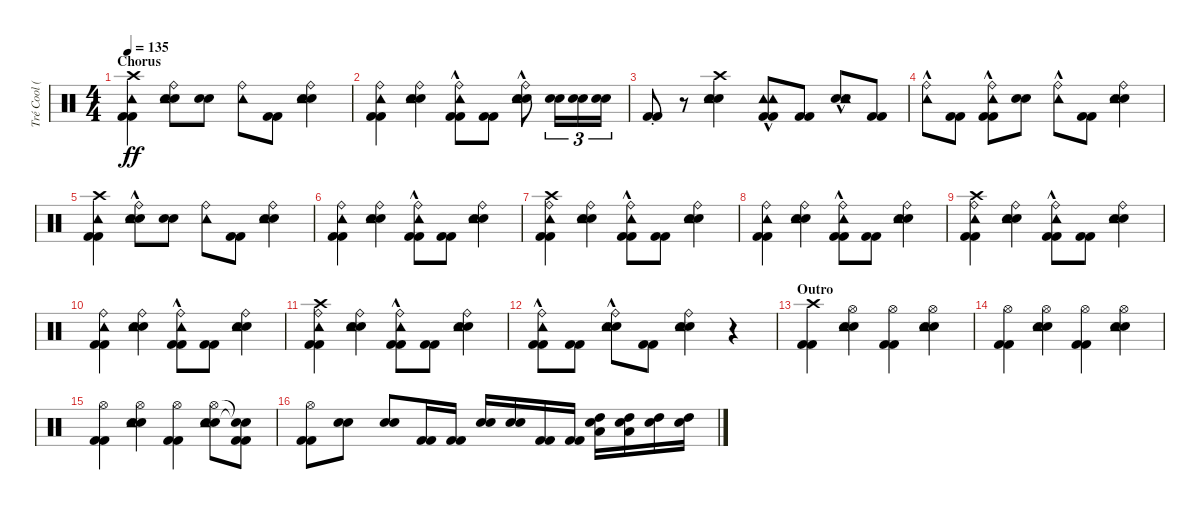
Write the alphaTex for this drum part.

\track ("Tré Cool (Drums)" "Tré Cool (") {instrument percussion}
\staff {score}
\articulation defaults
\ts (4 4)
\section ("" "Chorus")
\tempo 135
\clef neutral
\ks c
("Kick (hit) 2" "Kick (hit) 2" "Tambourine (hit)" "Crash high (hit)").4{dy ff} ("Snare (hit) 2" "Snare (hit) 2" "Ride (bell)" "Tambourine (hit)").8 ("Snare (hit) 2" "Snare (hit) 2").8 ("Ride (bell)" "Tambourine (hit)").8 ("Kick (hit) 2" "Kick (hit) 2").8 ("Snare (hit) 2" "Snare (hit) 2" "Ride (bell)" "Tambourine (hit)").4 |
("Kick (hit) 2" "Kick (hit) 2" "Ride (bell)" "Tambourine (hit)").4 ("Snare (hit) 2" "Snare (hit) 2" "Ride (bell)" "Tambourine (hit)").4 ("Kick (hit) 2" "Kick (hit) 2" "Ride (bell)"{hac} "Tambourine (hit)"{hac}).8 ("Kick (hit) 2" "Kick (hit) 2").8 ("Snare (hit) 2"{hac} "Snare (hit) 2"{hac} "Ride (bell)" "Tambourine (hit)").8 ("Snare (hit) 2" "Snare (hit) 2").16{tu (3 2)} ("Snare (hit) 2" "Snare (hit) 2").16{tu (3 2)} ("Snare (hit) 2" "Snare (hit) 2").16{tu (3 2)} |
("Kick (hit) 2"{st} "Kick (hit) 2"{st}).8 r.8 ("Snare (hit) 2" "Snare (hit) 2" "Tambourine (hit)" "Crash high (hit)").4 ("Kick (hit) 2" "Kick (hit) 2" "Tambourine (hit)"{hac} "Tambourine (hit)"{hac}).8 ("Kick (hit) 2" "Kick (hit) 2").8 ("Snare (hit) 2" "Snare (hit) 2" "Tambourine (hit)"{hac} "Tambourine (hit)"{hac}).8 ("Kick (hit) 2" "Kick (hit) 2").8 |
("Ride (bell)"{hac} "Tambourine (hit)"{hac}).8 ("Kick (hit) 2" "Kick (hit) 2").8 ("Kick (hit) 2" "Kick (hit) 2" "Ride (bell)"{hac} "Tambourine (hit)"{hac}).8 ("Snare (hit) 2" "Snare (hit) 2").8 ("Ride (bell)"{hac} "Tambourine (hit)"{hac}).8 ("Kick (hit) 2" "Kick (hit) 2").8 ("Snare (hit) 2" "Snare (hit) 2" "Ride (bell)" "Tambourine (hit)").4 |
("Kick (hit) 2" "Kick (hit) 2" "Crash high (hit)" "Tambourine (hit)").4 ("Snare (hit) 2" "Snare (hit) 2" "Ride (bell)"{hac} "Tambourine (hit)"{hac}).8 ("Snare (hit) 2" "Snare (hit) 2").8 ("Ride (bell)" "Tambourine (hit)").8 ("Kick (hit) 2" "Kick (hit) 2").8 ("Snare (hit) 2" "Snare (hit) 2" "Ride (bell)" "Tambourine (hit)").4 |
("Kick (hit) 2" "Kick (hit) 2" "Ride (bell)" "Tambourine (hit)").4 ("Snare (hit) 2" "Snare (hit) 2" "Ride (bell)" "Tambourine (hit)").4 ("Kick (hit) 2" "Kick (hit) 2" "Ride (bell)"{hac} "Tambourine (hit)"{hac}).8 ("Kick (hit) 2" "Kick (hit) 2").8 ("Snare (hit) 2" "Snare (hit) 2" "Ride (bell)" "Tambourine (hit)").4 |
("Kick (hit) 2" "Kick (hit) 2" "Ride (bell)" "Tambourine (hit)" "Crash high (hit)").4 ("Snare (hit) 2" "Snare (hit) 2" "Ride (bell)" "Tambourine (hit)").4 ("Kick (hit) 2" "Kick (hit) 2" "Ride (bell)"{hac} "Tambourine (hit)"{hac}).8 ("Kick (hit) 2" "Kick (hit) 2").8 ("Snare (hit) 2" "Snare (hit) 2" "Ride (bell)" "Tambourine (hit)").4 |
("Kick (hit) 2" "Kick (hit) 2" "Ride (bell)" "Tambourine (hit)").4 ("Snare (hit) 2" "Snare (hit) 2" "Ride (bell)" "Tambourine (hit)").4 ("Kick (hit) 2" "Kick (hit) 2" "Ride (bell)"{hac} "Tambourine (hit)"{hac}).8 ("Kick (hit) 2" "Kick (hit) 2").8 ("Snare (hit) 2" "Snare (hit) 2" "Ride (bell)" "Tambourine (hit)").4 |
("Kick (hit) 2" "Kick (hit) 2" "Ride (bell)" "Tambourine (hit)" "Crash high (hit)").4 ("Snare (hit) 2" "Snare (hit) 2" "Ride (bell)" "Tambourine (hit)").4 ("Kick (hit) 2" "Kick (hit) 2" "Ride (bell)"{hac} "Tambourine (hit)"{hac}).8 ("Kick (hit) 2" "Kick (hit) 2").8 ("Snare (hit) 2" "Snare (hit) 2" "Ride (bell)" "Tambourine (hit)").4 |
("Kick (hit) 2" "Kick (hit) 2" "Ride (bell)" "Tambourine (hit)").4 ("Snare (hit) 2" "Snare (hit) 2" "Ride (bell)" "Tambourine (hit)").4 ("Kick (hit) 2" "Kick (hit) 2" "Ride (bell)"{hac} "Tambourine (hit)"{hac}).8 ("Kick (hit) 2" "Kick (hit) 2").8 ("Snare (hit) 2" "Snare (hit) 2" "Ride (bell)" "Tambourine (hit)").4 |
("Kick (hit) 2" "Kick (hit) 2" "Ride (bell)" "Tambourine (hit)" "Crash high (hit)").4 ("Snare (hit) 2" "Snare (hit) 2" "Ride (bell)" "Tambourine (hit)").4 ("Kick (hit) 2" "Kick (hit) 2" "Ride (bell)"{hac} "Tambourine (hit)"{hac}).8 ("Kick (hit) 2" "Kick (hit) 2").8 ("Snare (hit) 2" "Snare (hit) 2" "Ride (bell)" "Tambourine (hit)").4 |
("Kick (hit) 2" "Kick (hit) 2" "Ride (bell)"{hac} "Tambourine (hit)"{hac}).8 ("Kick (hit) 2" "Kick (hit) 2").8 ("Snare (hit) 2" "Snare (hit) 2" "Ride (bell)" "Tambourine (hit)"{hac}).8 ("Kick (hit) 2" "Kick (hit) 2").8 ("Snare (hit) 2" "Snare (hit) 2" "Ride (bell)" "Tambourine (hit)").4 r.4 |
\section ("" "Outro")
("Kick (hit) 2" "Kick (hit) 2" "Crash high (hit)").4 ("Snare (hit) 2" "Snare (hit) 2" "Tambourine (hit)" "Hi-Hat (open)").4 ("Kick (hit) 2" "Kick (hit) 2" "Hi-Hat (open)").4 ("Snare (hit) 2" "Snare (hit) 2" "Tambourine (hit)" "Hi-Hat (open)").4 |
("Kick (hit) 2" "Kick (hit) 2" "Hi-Hat (open)").4 ("Snare (hit) 2" "Snare (hit) 2" "Tambourine (hit)" "Hi-Hat (open)").4 ("Kick (hit) 2" "Kick (hit) 2" "Hi-Hat (open)").4 ("Snare (hit) 2" "Snare (hit) 2" "Tambourine (hit)" "Hi-Hat (open)").4 |
("Kick (hit) 2" "Kick (hit) 2" "Hi-Hat (open)").4 ("Snare (hit) 2" "Snare (hit) 2" "Tambourine (hit)" "Hi-Hat (open)").4 ("Kick (hit) 2" "Kick (hit) 2" "Hi-Hat (open)").4 ("Snare (hit) 2" "Snare (hit) 2" "Tambourine (hit)" "Hi-Hat (open)").8 ("Kick (hit) 2" "Kick (hit) 2" "Snare (hit)"{t} "Snare (hit)"{t}).8 |
("Kick (hit) 2" "Kick (hit) 2" "Hi-Hat (open)").8 ("Snare (hit) 2" "Snare (hit) 2").8 ("Snare (hit) 2" "Snare (hit) 2").8 ("Kick (hit) 2" "Kick (hit) 2").16 ("Kick (hit) 2" "Kick (hit) 2").16 ("Snare (hit) 2" "Snare (hit) 2").16 ("Snare (hit) 2" "Snare (hit) 2").16 ("Kick (hit) 2" "Kick (hit) 2").16 ("Kick (hit) 2" "Kick (hit) 2").16 ("Snare (hit) 2" "High Tom (hit)" "Low Floor Tom (hit)").16 ("Snare (hit) 2" "High Tom (hit)" "Low Floor Tom (hit)").16 ("Snare (hit) 2" "High Tom (hit)").16 ("Snare (hit) 2" "High Tom (hit)").16
